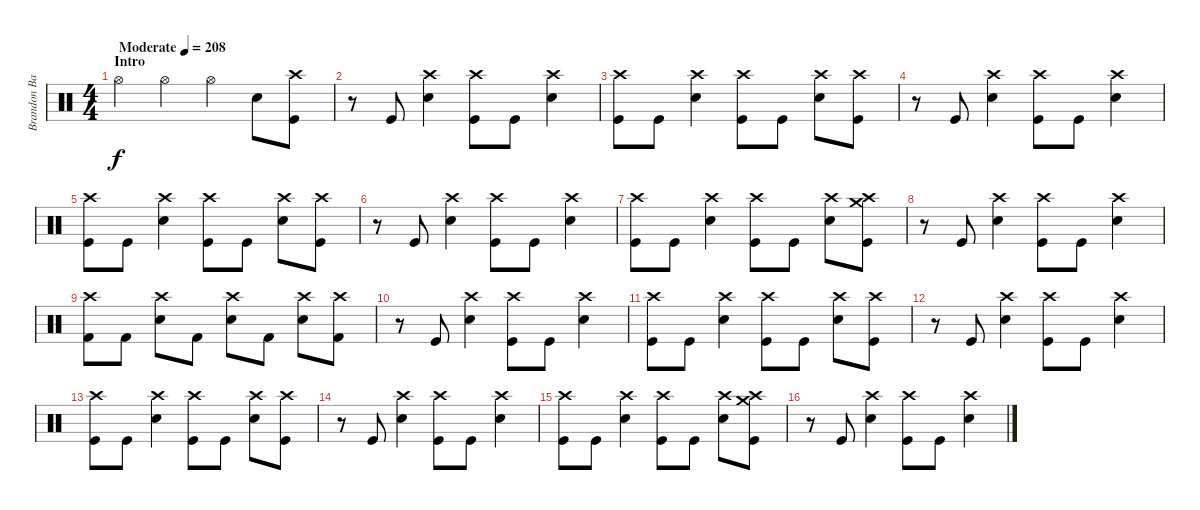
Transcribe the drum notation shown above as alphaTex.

\track ("Brandon Barnes - Drums" "Brandon Ba") {instrument percussion}
\staff {score}
\articulation defaults
\ts (4 4)
\section ("" "Intro")
\tempo (208 "Moderate")
\clef neutral
\ks c "Hi-Hat (open)".4{dy f} "Hi-Hat (open)".4 "Hi-Hat (open)".4 "Snare (hit) 2".8
("Kick (hit)" "Crash high (hit)").8 |
r.8 "Kick (hit)".8 ("Snare (hit) 2" "Crash high (hit)").4 ("Kick (hit)" "Crash high (hit)").8 "Kick (hit)".8 ("Snare (hit) 2" "Crash high (hit)").4 |
("Kick (hit)" "Crash high (hit)").8 "Kick (hit)".8 ("Snare (hit) 2" "Crash high (hit)").4 ("Kick (hit)" "Crash high (hit)").8 "Kick (hit)".8 ("Snare (hit) 2" "Crash high (hit)").8 ("Kick (hit)" "Crash high (hit)").8 |
r.8 "Kick (hit)".8 ("Snare (hit) 2" "Crash high (hit)").4 ("Kick (hit)" "Crash high (hit)").8 "Kick (hit)".8 ("Snare (hit) 2" "Crash high (hit)").4 |
("Kick (hit)" "Crash high (hit)").8 "Kick (hit)".8 ("Snare (hit) 2" "Crash high (hit)").4 ("Kick (hit)" "Crash high (hit)").8 "Kick (hit)".8 ("Snare (hit) 2" "Crash high (hit)").8 ("Kick (hit)" "Crash high (hit)").8 |
r.8 "Kick (hit)".8 ("Snare (hit) 2" "Crash high (hit)").4 ("Kick (hit)" "Crash high (hit)").8 "Kick (hit)".8 ("Snare (hit) 2" "Crash high (hit)").4 |
("Kick (hit)" "Crash high (hit)").8 "Kick (hit)".8 ("Snare (hit) 2" "Crash high (hit)").4 ("Kick (hit)" "Crash high (hit)").8 "Kick (hit)".8 ("Snare (hit) 2" "Crash high (hit)").8 ("Kick (hit)" "Crash high (hit)" "Crash medium (hit)").8 |
r.8 "Kick (hit)".8 ("Snare (hit) 2" "Crash high (hit)").4 ("Kick (hit)" "Crash high (hit)").8 "Kick (hit)".8 ("Snare (hit) 2" "Crash high (hit)").4 |
("Kick (hit) 2" "Crash high (hit)").8 "Kick (hit) 2".8 ("Snare (hit) 2" "Crash high (hit)").8 "Kick (hit) 2".8 ("Snare (hit) 2" "Crash high (hit)").8 "Kick (hit) 2".8 ("Snare (hit) 2" "Crash high (hit)").8 ("Kick (hit) 2" "Crash high (hit)").8 |
r.8 "Kick (hit)".8 ("Snare (hit) 2" "Crash high (hit)").4 ("Kick (hit)" "Crash high (hit)").8 "Kick (hit)".8 ("Snare (hit) 2" "Crash high (hit)").4 |
("Kick (hit)" "Crash high (hit)").8 "Kick (hit)".8 ("Snare (hit) 2" "Crash high (hit)").4 ("Kick (hit)" "Crash high (hit)").8 "Kick (hit)".8 ("Snare (hit) 2" "Crash high (hit)").8 ("Kick (hit)" "Crash high (hit)").8 |
r.8 "Kick (hit)".8 ("Snare (hit) 2" "Crash high (hit)").4 ("Kick (hit)" "Crash high (hit)").8 "Kick (hit)".8 ("Snare (hit) 2" "Crash high (hit)").4 |
("Kick (hit)" "Crash high (hit)").8 "Kick (hit)".8 ("Snare (hit) 2" "Crash high (hit)").4 ("Kick (hit)" "Crash high (hit)").8 "Kick (hit)".8 ("Snare (hit) 2" "Crash high (hit)").8 ("Kick (hit)" "Crash high (hit)").8 |
r.8 "Kick (hit)".8 ("Snare (hit) 2" "Crash high (hit)").4 ("Kick (hit)" "Crash high (hit)").8 "Kick (hit)".8 ("Snare (hit) 2" "Crash high (hit)").4 |
("Kick (hit)" "Crash high (hit)").8 "Kick (hit)".8 ("Snare (hit) 2" "Crash high (hit)").4 ("Kick (hit)" "Crash high (hit)").8 "Kick (hit)".8 ("Snare (hit) 2" "Crash high (hit)").8 ("Kick (hit)" "Crash high (hit)" "Crash medium (hit)").8 |
r.8 "Kick (hit)".8 ("Snare (hit) 2" "Crash high (hit)").4 ("Kick (hit)" "Crash high (hit)").8 "Kick (hit)".8 ("Snare (hit) 2" "Crash high (hit)").4
